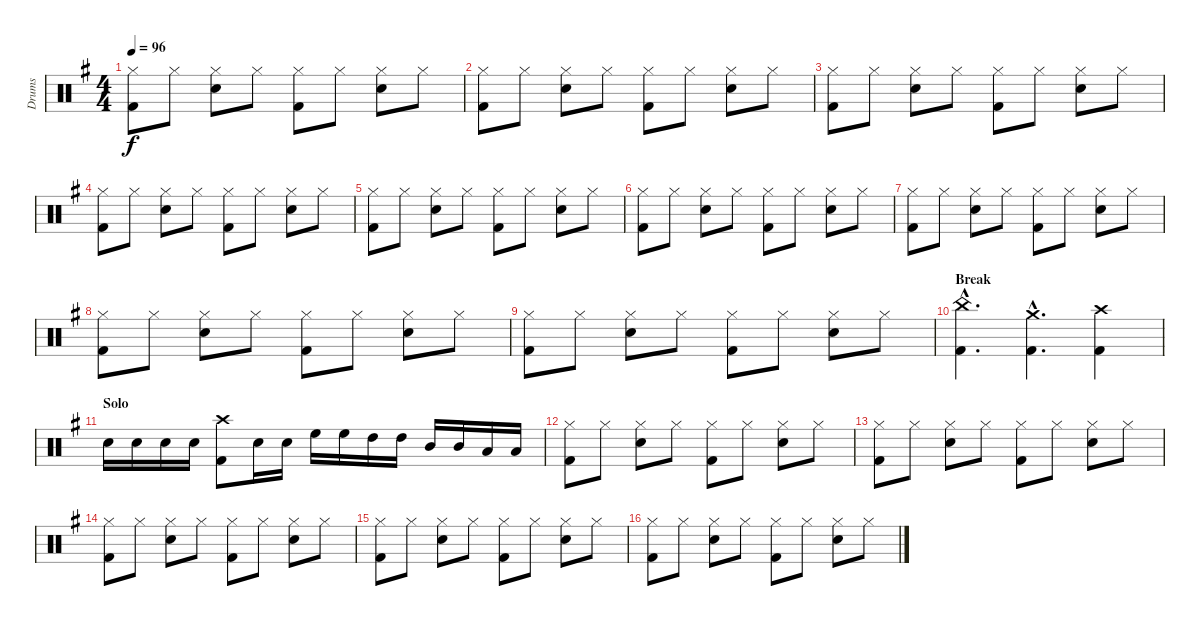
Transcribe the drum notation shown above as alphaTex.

\track ("Drums" "Drums") {instrument percussion}
\staff {score}
\articulation defaults
\ts (4 4)
\tempo 96
\clef neutral
\ks eminor
("Hi-Hat (closed)" "Kick (hit) 2").8{dy f} "Hi-Hat (closed)".8 ("Hi-Hat (closed)" "Snare (hit) 2").8 "Hi-Hat (closed)".8 ("Hi-Hat (closed)" "Kick (hit) 2").8 "Hi-Hat (closed)".8 ("Hi-Hat (closed)" "Snare (hit) 2").8 "Hi-Hat (closed)".8 |
("Hi-Hat (closed)" "Kick (hit) 2").8 "Hi-Hat (closed)".8 ("Hi-Hat (closed)" "Snare (hit) 2").8 "Hi-Hat (closed)".8 ("Hi-Hat (closed)" "Kick (hit) 2").8 "Hi-Hat (closed)".8 ("Hi-Hat (closed)" "Snare (hit) 2").8 "Hi-Hat (closed)".8 |
("Hi-Hat (closed)" "Kick (hit) 2").8 "Hi-Hat (closed)".8 ("Hi-Hat (closed)" "Snare (hit) 2").8 "Hi-Hat (closed)".8 ("Hi-Hat (closed)" "Kick (hit) 2").8 "Hi-Hat (closed)".8 ("Hi-Hat (closed)" "Snare (hit) 2").8 "Hi-Hat (closed)".8 |
("Hi-Hat (closed)" "Kick (hit) 2").8 "Hi-Hat (closed)".8 ("Hi-Hat (closed)" "Snare (hit) 2").8 "Hi-Hat (closed)".8 ("Hi-Hat (closed)" "Kick (hit) 2").8 "Hi-Hat (closed)".8 ("Hi-Hat (closed)" "Snare (hit) 2").8 "Hi-Hat (closed)".8 |
("Hi-Hat (closed)" "Kick (hit) 2").8 "Hi-Hat (closed)".8 ("Hi-Hat (closed)" "Snare (hit) 2").8 "Hi-Hat (closed)".8 ("Hi-Hat (closed)" "Kick (hit) 2").8 "Hi-Hat (closed)".8 ("Hi-Hat (closed)" "Snare (hit) 2").8 "Hi-Hat (closed)".8 |
("Hi-Hat (closed)" "Kick (hit) 2").8 "Hi-Hat (closed)".8 ("Hi-Hat (closed)" "Snare (hit) 2").8 "Hi-Hat (closed)".8 ("Hi-Hat (closed)" "Kick (hit) 2").8 "Hi-Hat (closed)".8 ("Hi-Hat (closed)" "Snare (hit) 2").8 "Hi-Hat (closed)".8 |
("Hi-Hat (closed)" "Kick (hit) 2").8 "Hi-Hat (closed)".8 ("Hi-Hat (closed)" "Snare (hit) 2").8 "Hi-Hat (closed)".8 ("Hi-Hat (closed)" "Kick (hit) 2").8 "Hi-Hat (closed)".8 ("Hi-Hat (closed)" "Snare (hit) 2").8 "Hi-Hat (closed)".8 |
("Hi-Hat (closed)" "Kick (hit) 2").8 "Hi-Hat (closed)".8 ("Hi-Hat (closed)" "Snare (hit) 2").8 "Hi-Hat (closed)".8 ("Hi-Hat (closed)" "Kick (hit) 2").8 "Hi-Hat (closed)".8 ("Hi-Hat (closed)" "Snare (hit) 2").8 "Hi-Hat (closed)".8 |
("Hi-Hat (closed)" "Kick (hit) 2").8 "Hi-Hat (closed)".8 ("Hi-Hat (closed)" "Snare (hit) 2").8 "Hi-Hat (closed)".8 ("Hi-Hat (closed)" "Kick (hit) 2").8 "Hi-Hat (closed)".8 ("Hi-Hat (closed)" "Snare (hit) 2").8 "Hi-Hat (closed)".8 |
\section ("" "Break")
("China (hit)"{hac} "Kick (hit) 2"{hac}).4{d} ("Crash medium (hit)"{hac} "Kick (hit) 2"{hac}).4{d} ("Crash high (hit)" "Kick (hit) 2").4 |
\section ("" "Solo")
"Snare (hit) 2".16 "Snare (hit) 2".16 "Snare (hit) 2".16 "Snare (hit) 2".16 ("Crash high (hit)" "Kick (hit) 2").8 "Snare (hit) 2".16 "Snare (hit) 2".16 "High Floor Tom (hit)".16 "High Floor Tom (hit)".16 "High Tom (hit)".16 "High Tom (hit)".16 "Mid Tom (hit)".16 "Mid Tom (hit)".16 "Low Tom (hit)".16 "Low Tom (hit)".16 |
("Hi-Hat (closed)" "Kick (hit) 2").8 "Hi-Hat (closed)".8 ("Hi-Hat (closed)" "Snare (hit) 2").8 "Hi-Hat (closed)".8 ("Hi-Hat (closed)" "Kick (hit) 2").8 "Hi-Hat (closed)".8 ("Hi-Hat (closed)" "Snare (hit) 2").8 "Hi-Hat (closed)".8 |
("Hi-Hat (closed)" "Kick (hit) 2").8 "Hi-Hat (closed)".8 ("Hi-Hat (closed)" "Snare (hit) 2").8 "Hi-Hat (closed)".8 ("Hi-Hat (closed)" "Kick (hit) 2").8 "Hi-Hat (closed)".8 ("Hi-Hat (closed)" "Snare (hit) 2").8 "Hi-Hat (closed)".8 |
("Hi-Hat (closed)" "Kick (hit) 2").8 "Hi-Hat (closed)".8 ("Hi-Hat (closed)" "Snare (hit) 2").8 "Hi-Hat (closed)".8 ("Hi-Hat (closed)" "Kick (hit) 2").8 "Hi-Hat (closed)".8 ("Hi-Hat (closed)" "Snare (hit) 2").8 "Hi-Hat (closed)".8 |
("Hi-Hat (closed)" "Kick (hit) 2").8 "Hi-Hat (closed)".8 ("Hi-Hat (closed)" "Snare (hit) 2").8 "Hi-Hat (closed)".8 ("Hi-Hat (closed)" "Kick (hit) 2").8 "Hi-Hat (closed)".8 ("Hi-Hat (closed)" "Snare (hit) 2").8 "Hi-Hat (closed)".8 |
("Hi-Hat (closed)" "Kick (hit) 2").8 "Hi-Hat (closed)".8 ("Hi-Hat (closed)" "Snare (hit) 2").8 "Hi-Hat (closed)".8 ("Hi-Hat (closed)" "Kick (hit) 2").8 "Hi-Hat (closed)".8 ("Hi-Hat (closed)" "Snare (hit) 2").8 "Hi-Hat (closed)".8
